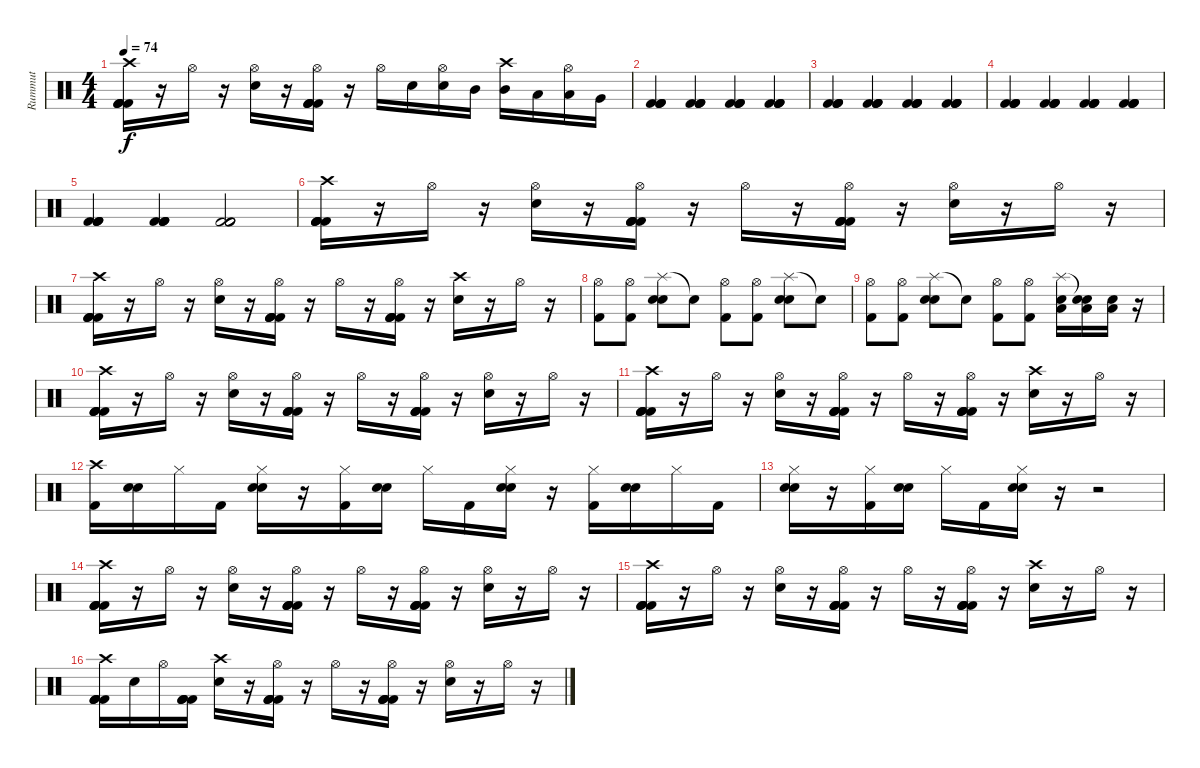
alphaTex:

\track ("Rummut" "Rummut") {instrument percussion}
\staff {score}
\articulation defaults
\ts (4 4)
\tempo 74
\clef neutral
\ks c
("Crash high (hit)" "Kick (hit) 2" "Kick (hit) 2" "Kick (hit) 2" "Kick (hit) 2").16{dy f} r.16 "Hi-Hat (open)".16 r.16 ("Hi-Hat (open)" "Electric Snare (hit)").16 r.16 ("Hi-Hat (open)" "Kick (hit) 2" "Kick (hit) 2" "Kick (hit) 2" "Kick (hit) 2").16 r.16 "Hi-Hat (open)".16 "Electric Snare (hit)".16 ("Hi-Hat (open)" "Electric Snare (hit)").16 "Mid Tom (hit)".16 ("Crash high (hit)" "Mid Tom (hit)").16 "Low Tom (hit)".16 ("Hi-Hat (open)" "Low Tom (hit)").16 "Very Low Tom (hit)".16 |
("Kick (hit) 2" "Kick (hit) 2" "Kick (hit) 2" "Kick (hit) 2").4 ("Kick (hit) 2" "Kick (hit) 2" "Kick (hit) 2" "Kick (hit) 2").4 ("Kick (hit) 2" "Kick (hit) 2" "Kick (hit) 2" "Kick (hit) 2").4 ("Kick (hit) 2" "Kick (hit) 2" "Kick (hit) 2" "Kick (hit) 2").4 |
("Kick (hit) 2" "Kick (hit) 2" "Kick (hit) 2" "Kick (hit) 2").4 ("Kick (hit) 2" "Kick (hit) 2" "Kick (hit) 2" "Kick (hit) 2").4 ("Kick (hit) 2" "Kick (hit) 2" "Kick (hit) 2" "Kick (hit) 2").4 ("Kick (hit) 2" "Kick (hit) 2" "Kick (hit) 2" "Kick (hit) 2").4 |
("Kick (hit) 2" "Kick (hit) 2" "Kick (hit) 2" "Kick (hit) 2").4 ("Kick (hit) 2" "Kick (hit) 2" "Kick (hit) 2" "Kick (hit) 2").4 ("Kick (hit) 2" "Kick (hit) 2" "Kick (hit) 2" "Kick (hit) 2").4 ("Kick (hit) 2" "Kick (hit) 2" "Kick (hit) 2" "Kick (hit) 2").4 |
("Kick (hit) 2" "Kick (hit) 2" "Kick (hit) 2" "Kick (hit) 2").4 ("Kick (hit) 2" "Kick (hit) 2" "Kick (hit) 2" "Kick (hit) 2").4 ("Kick (hit) 2" "Kick (hit) 2" "Kick (hit) 2" "Kick (hit) 2").2 |
("Crash high (hit)" "Kick (hit) 2" "Kick (hit) 2" "Kick (hit) 2" "Kick (hit) 2").16 r.16 "Hi-Hat (open)".16 r.16 ("Hi-Hat (open)" "Electric Snare (hit)").16 r.16 ("Hi-Hat (open)" "Kick (hit) 2" "Kick (hit) 2" "Kick (hit) 2" "Kick (hit) 2").16 r.16 "Hi-Hat (open)".16 r.16 ("Hi-Hat (open)" "Kick (hit) 2" "Kick (hit) 2" "Kick (hit) 2" "Kick (hit) 2").16 r.16 ("Hi-Hat (open)" "Electric Snare (hit)").16 r.16 "Hi-Hat (open)".16 r.16 |
("Crash high (hit)" "Kick (hit) 2" "Kick (hit) 2" "Kick (hit) 2" "Kick (hit) 2").16 r.16 "Hi-Hat (open)".16 r.16 ("Hi-Hat (open)" "Electric Snare (hit)").16 r.16 ("Hi-Hat (open)" "Kick (hit) 2" "Kick (hit) 2" "Kick (hit) 2" "Kick (hit) 2").16 r.16 "Hi-Hat (open)".16 r.16 ("Hi-Hat (open)" "Kick (hit) 2" "Kick (hit) 2" "Kick (hit) 2" "Kick (hit) 2").16 r.16 ("Crash high (hit)" "Electric Snare (hit)").16 r.16 "Hi-Hat (open)".16 r.16 |
("Hi-Hat (open)" "Kick (hit) 2").8 ("Hi-Hat (open)" "Kick (hit) 2").8 ("Splash (hit)" "Electric Snare (hit)" "Hand Clap (hit)").8 "Snare (hit)"{t}.8 ("Hi-Hat (open)" "Kick (hit) 2").8 ("Hi-Hat (open)" "Kick (hit) 2").8 ("Splash (hit)" "Electric Snare (hit)" "Hand Clap (hit)").8 "Snare (hit)"{t}.8 |
("Hi-Hat (open)" "Kick (hit) 2").8 ("Hi-Hat (open)" "Kick (hit) 2").8 ("Splash (hit)" "Electric Snare (hit)" "Hand Clap (hit)").8 "Snare (hit)"{t}.8 ("Hi-Hat (open)" "Kick (hit) 2").8 ("Hi-Hat (open)" "Kick (hit) 2").8 ("Splash (hit)" "Electric Snare (hit)" "Low Tom (hit)").16 ("Snare (hit)"{t} "Electric Snare (hit)" "Low Tom (hit)").16 ("Electric Snare (hit)" "Low Tom (hit)").16 r.16 |
("Crash high (hit)" "Kick (hit) 2" "Kick (hit) 2" "Kick (hit) 2" "Kick (hit) 2").16 r.16 "Hi-Hat (open)".16 r.16 ("Hi-Hat (open)" "Electric Snare (hit)").16 r.16 ("Hi-Hat (open)" "Kick (hit) 2" "Kick (hit) 2" "Kick (hit) 2" "Kick (hit) 2").16 r.16 "Hi-Hat (open)".16 r.16 ("Hi-Hat (open)" "Kick (hit) 2" "Kick (hit) 2" "Kick (hit) 2" "Kick (hit) 2").16 r.16 ("Hi-Hat (open)" "Electric Snare (hit)").16 r.16 "Hi-Hat (open)".16 r.16 |
("Crash high (hit)" "Kick (hit) 2" "Kick (hit) 2" "Kick (hit) 2" "Kick (hit) 2").16 r.16 "Hi-Hat (open)".16 r.16 ("Hi-Hat (open)" "Electric Snare (hit)").16 r.16 ("Hi-Hat (open)" "Kick (hit) 2" "Kick (hit) 2" "Kick (hit) 2" "Kick (hit) 2").16 r.16 "Hi-Hat (open)".16 r.16 ("Hi-Hat (open)" "Kick (hit) 2" "Kick (hit) 2" "Kick (hit) 2" "Kick (hit) 2").16 r.16 ("Crash high (hit)" "Electric Snare (hit)").16 r.16 "Hi-Hat (open)".16 r.16 |
("Crash high (hit)" "Kick (hit) 2").16 ("Electric Snare (hit)" "Hand Clap (hit)").16 "Hi-Hat (closed)".16 "Kick (hit) 2".16 ("Hi-Hat (closed)" "Electric Snare (hit)" "Hand Clap (hit)").16 r.16 ("Hi-Hat (closed)" "Kick (hit) 2").16 ("Electric Snare (hit)" "Hand Clap (hit)").16 "Hi-Hat (closed)".16 "Kick (hit) 2".16 ("Hi-Hat (closed)" "Electric Snare (hit)" "Hand Clap (hit)").16 r.16 ("Hi-Hat (closed)" "Kick (hit) 2").16 ("Electric Snare (hit)" "Hand Clap (hit)").16 "Hi-Hat (closed)".16 "Kick (hit) 2".16 |
("Hi-Hat (closed)" "Electric Snare (hit)" "Hand Clap (hit)").16 r.16 ("Hi-Hat (closed)" "Kick (hit) 2").16 ("Electric Snare (hit)" "Hand Clap (hit)").16 "Hi-Hat (closed)".16 "Kick (hit) 2".16 ("Hi-Hat (closed)" "Electric Snare (hit)" "Hand Clap (hit)").16 r.16 r.2 |
("Crash high (hit)" "Kick (hit) 2" "Kick (hit) 2" "Kick (hit) 2" "Kick (hit) 2").16 r.16 "Hi-Hat (open)".16 r.16 ("Hi-Hat (open)" "Electric Snare (hit)").16 r.16 ("Hi-Hat (open)" "Kick (hit) 2" "Kick (hit) 2" "Kick (hit) 2" "Kick (hit) 2").16 r.16 "Hi-Hat (open)".16 r.16 ("Hi-Hat (open)" "Kick (hit) 2" "Kick (hit) 2" "Kick (hit) 2" "Kick (hit) 2").16 r.16 ("Hi-Hat (open)" "Electric Snare (hit)").16 r.16 "Hi-Hat (open)".16 r.16 |
("Crash high (hit)" "Kick (hit) 2" "Kick (hit) 2" "Kick (hit) 2" "Kick (hit) 2").16 r.16 "Hi-Hat (open)".16 r.16 ("Hi-Hat (open)" "Electric Snare (hit)").16 r.16 ("Hi-Hat (open)" "Kick (hit) 2" "Kick (hit) 2" "Kick (hit) 2" "Kick (hit) 2").16 r.16 "Hi-Hat (open)".16 r.16 ("Hi-Hat (open)" "Kick (hit) 2" "Kick (hit) 2" "Kick (hit) 2" "Kick (hit) 2").16 r.16 ("Crash high (hit)" "Electric Snare (hit)").16 r.16 "Hi-Hat (open)".16 r.16 |
("Crash high (hit)" "Kick (hit) 2" "Kick (hit) 2" "Kick (hit) 2" "Kick (hit) 2").16 "Electric Snare (hit)".16 "Hi-Hat (open)".16 ("Kick (hit) 2" "Kick (hit) 2" "Kick (hit) 2" "Kick (hit) 2").16 ("Crash high (hit)" "Electric Snare (hit)").16 r.16 ("Hi-Hat (open)" "Kick (hit) 2" "Kick (hit) 2" "Kick (hit) 2" "Kick (hit) 2").16 r.16 "Hi-Hat (open)".16 r.16 ("Hi-Hat (open)" "Kick (hit) 2" "Kick (hit) 2" "Kick (hit) 2" "Kick (hit) 2").16 r.16 ("Hi-Hat (open)" "Electric Snare (hit)").16 r.16 "Hi-Hat (open)".16 r.16
